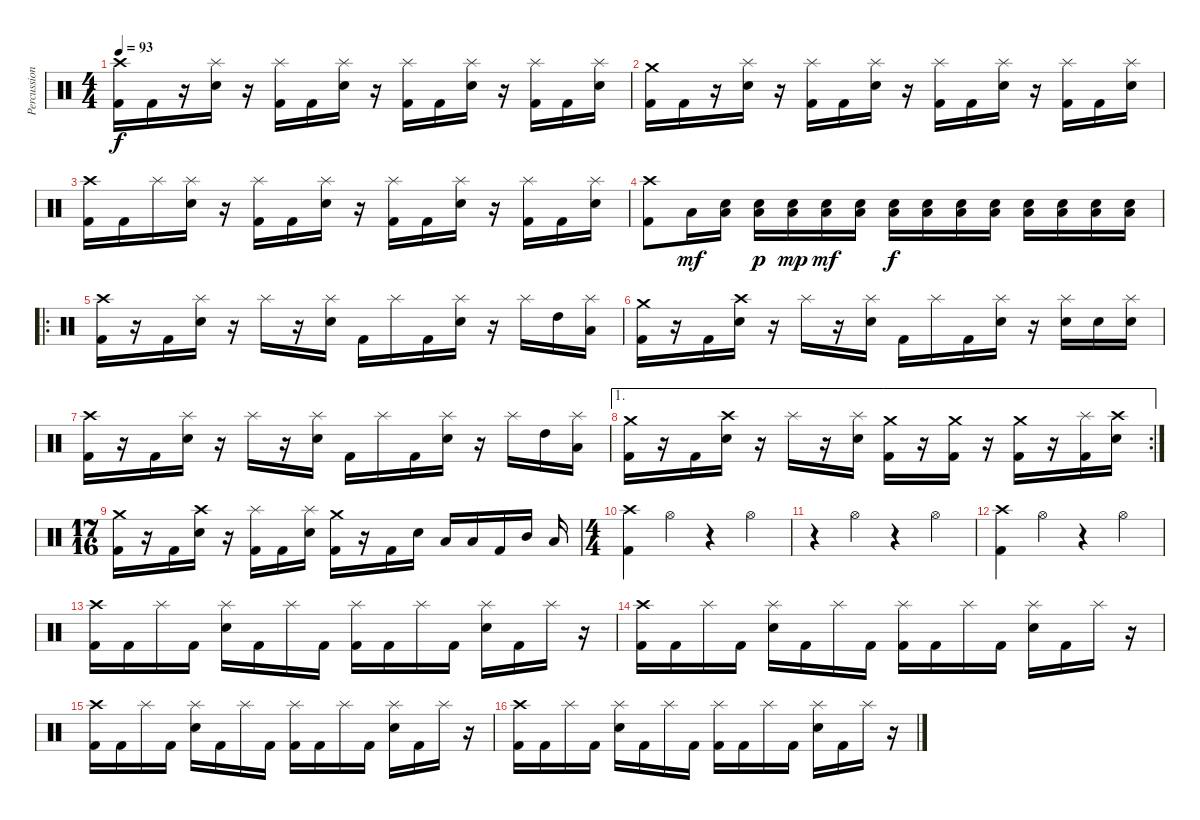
\track ("Percussion" "Percussion") {instrument percussion}
\staff {score}
\articulation defaults
\ts (4 4)
\tempo 93
\clef neutral
\ks c
("Crash high (hit)" "Kick (hit) 2").16{dy f} "Kick (hit) 2".16 r.16 ("Splash (hit)" "Electric Snare (hit)").16 r.16 ("Splash (hit)" "Kick (hit) 2").16 "Kick (hit) 2".16 ("Splash (hit)" "Electric Snare (hit)").16 r.16 ("Splash (hit)" "Kick (hit) 2").16 "Kick (hit) 2".16 ("Splash (hit)" "Electric Snare (hit)").16 r.16 ("Splash (hit)" "Kick (hit) 2").16 "Kick (hit) 2".16 ("Splash (hit)" "Electric Snare (hit)").16 |
("Crash medium (hit)" "Kick (hit) 2").16 "Kick (hit) 2".16 r.16 ("Splash (hit)" "Electric Snare (hit)").16 r.16 ("Splash (hit)" "Kick (hit) 2").16 "Kick (hit) 2".16 ("Splash (hit)" "Electric Snare (hit)").16 r.16 ("Splash (hit)" "Kick (hit) 2").16 "Kick (hit) 2".16 ("Splash (hit)" "Electric Snare (hit)").16 r.16 ("Splash (hit)" "Kick (hit) 2").16 "Kick (hit) 2".16 ("Splash (hit)" "Electric Snare (hit)").16 |
("Crash high (hit)" "Kick (hit) 2").16 "Kick (hit) 2".16 "Splash (hit)".16 ("Splash (hit)" "Electric Snare (hit)").16 r.16 ("Splash (hit)" "Kick (hit) 2").16 "Kick (hit) 2".16 ("Splash (hit)" "Electric Snare (hit)").16 r.16 ("Splash (hit)" "Kick (hit) 2").16 "Kick (hit) 2".16 ("Splash (hit)" "Electric Snare (hit)").16 r.16 ("Splash (hit)" "Kick (hit) 2").16 "Kick (hit) 2".16 ("Splash (hit)" "Electric Snare (hit)").16 |
("Crash high (hit)" "Kick (hit) 2").8 "Low Tom (hit)".16{dy mf} ("Electric Snare (hit)" "Low Tom (hit)").16 ("Electric Snare (hit)" "Low Tom (hit)").16{dy p} ("Electric Snare (hit)" "Low Tom (hit)").16{dy mp} ("Electric Snare (hit)" "Low Tom (hit)").16{dy mf} ("Electric Snare (hit)" "Low Tom (hit)").16 ("Electric Snare (hit)" "Low Tom (hit)").16{dy f} ("Electric Snare (hit)" "Low Tom (hit)").16 ("Electric Snare (hit)" "Low Tom (hit)").16 ("Electric Snare (hit)" "Low Tom (hit)").16 ("Electric Snare (hit)" "Low Tom (hit)").16 ("Electric Snare (hit)" "Low Tom (hit)").16 ("Electric Snare (hit)" "Low Tom (hit)").16 ("Electric Snare (hit)" "Low Tom (hit)").16 |
\ro
("Crash high (hit)" "Kick (hit) 2").16 r.16 "Kick (hit) 2".16 ("Splash (hit)" "Electric Snare (hit)").16 r.16 "Splash (hit)".16 r.16 ("Splash (hit)" "Electric Snare (hit)").16 "Kick (hit) 2".16 "Splash (hit)".16 "Kick (hit) 2".16 ("Splash (hit)" "Electric Snare (hit)").16 r.16 "Splash (hit)".16 "High Tom (hit)".16 ("Splash (hit)" "Low Tom (hit)").16 |
("Crash medium (hit)" "Kick (hit) 2").16 r.16 "Kick (hit) 2".16 ("Crash high (hit)" "Electric Snare (hit)").16 r.16 "Splash (hit)".16 r.16 ("Splash (hit)" "Electric Snare (hit)").16 "Kick (hit) 2".16 "Splash (hit)".16 "Kick (hit) 2".16 ("Splash (hit)" "Electric Snare (hit)").16 r.16 ("Splash (hit)" "Electric Snare (hit)").16 "Electric Snare (hit)".16 ("Splash (hit)" "Electric Snare (hit)").16 |
("Crash high (hit)" "Kick (hit) 2").16 r.16 "Kick (hit) 2".16 ("Splash (hit)" "Electric Snare (hit)").16 r.16 "Splash (hit)".16 r.16 ("Splash (hit)" "Electric Snare (hit)").16 "Kick (hit) 2".16 "Splash (hit)".16 "Kick (hit) 2".16 ("Splash (hit)" "Electric Snare (hit)").16 r.16 "Splash (hit)".16 "High Tom (hit)".16 ("Splash (hit)" "Low Tom (hit)").16 |
\ae 1
\rc 2
("Crash medium (hit)" "Kick (hit) 2").16 r.16 "Kick (hit) 2".16 ("Crash high (hit)" "Electric Snare (hit)").16 r.16 "Splash (hit)".16 r.16 ("Splash (hit)" "Electric Snare (hit)").16 ("Crash medium (hit)" "Kick (hit) 2").16 r.16 ("Crash medium (hit)" "Kick (hit) 2").16 r.16 ("Crash medium (hit)" "Kick (hit) 2").16 r.16 ("Splash (hit)" "Kick (hit) 2").16 ("Crash high (hit)" "Electric Snare (hit)").16 |
\ts (17 16)
("Crash medium (hit)" "Kick (hit) 2").16 r.16 "Kick (hit) 2".16 ("Crash high (hit)" "Electric Snare (hit)").16 r.16 ("Splash (hit)" "Kick (hit) 2").16 "Kick (hit) 2".16 ("Splash (hit)" "Electric Snare (hit)").16 ("Crash medium (hit)" "Kick (hit) 2").16 r.16 "Kick (hit) 2".16 "Electric Snare (hit)".16 "Low Tom (hit)".16 "Low Floor Tom (hit)".16 "Kick (hit) 2".16 "Mid Tom (hit)".16 "Low Tom (hit)".16 |
\ts (4 4)
("Crash high (hit)" "Kick (hit) 2").4 "Hi-Hat (open)".4 r.4 "Hi-Hat (open)".4 |
r.4 "Hi-Hat (open)".4 r.4 "Hi-Hat (open)".4 |
("Crash high (hit)" "Kick (hit) 2").4 "Hi-Hat (open)".4 r.4 "Hi-Hat (open)".4 |
("Crash high (hit)" "Kick (hit) 2").16 "Kick (hit) 2".16 "Splash (hit)".16 "Kick (hit) 2".16 ("Splash (hit)" "Electric Snare (hit)").16 "Kick (hit) 2".16 "Splash (hit)".16 "Kick (hit) 2".16 ("Splash (hit)" "Kick (hit) 2").16 "Kick (hit) 2".16 "Splash (hit)".16 "Kick (hit) 2".16 ("Splash (hit)" "Electric Snare (hit)").16 "Kick (hit) 2".16 "Splash (hit)".16 r.16 |
("Crash high (hit)" "Kick (hit) 2").16 "Kick (hit) 2".16 "Splash (hit)".16 "Kick (hit) 2".16 ("Splash (hit)" "Electric Snare (hit)").16 "Kick (hit) 2".16 "Splash (hit)".16 "Kick (hit) 2".16 ("Splash (hit)" "Kick (hit) 2").16 "Kick (hit) 2".16 "Splash (hit)".16 "Kick (hit) 2".16 ("Splash (hit)" "Electric Snare (hit)").16 "Kick (hit) 2".16 "Splash (hit)".16 r.16 |
("Crash high (hit)" "Kick (hit) 2").16 "Kick (hit) 2".16 "Splash (hit)".16 "Kick (hit) 2".16 ("Splash (hit)" "Electric Snare (hit)").16 "Kick (hit) 2".16 "Splash (hit)".16 "Kick (hit) 2".16 ("Splash (hit)" "Kick (hit) 2").16 "Kick (hit) 2".16 "Splash (hit)".16 "Kick (hit) 2".16 ("Splash (hit)" "Electric Snare (hit)").16 "Kick (hit) 2".16 "Splash (hit)".16 r.16 |
("Crash high (hit)" "Kick (hit) 2").16 "Kick (hit) 2".16 "Splash (hit)".16 "Kick (hit) 2".16 ("Splash (hit)" "Electric Snare (hit)").16 "Kick (hit) 2".16 "Splash (hit)".16 "Kick (hit) 2".16 ("Splash (hit)" "Kick (hit) 2").16 "Kick (hit) 2".16 "Splash (hit)".16 "Kick (hit) 2".16 ("Splash (hit)" "Electric Snare (hit)").16 "Kick (hit) 2".16 "Splash (hit)".16 r.16
